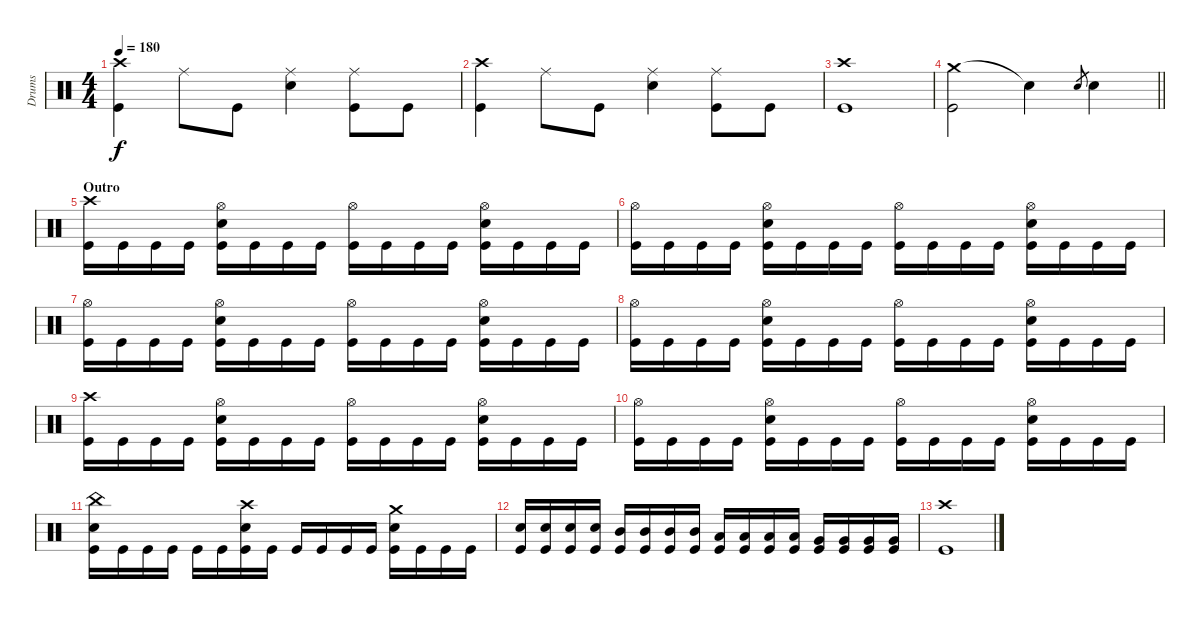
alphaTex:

\track ("Drums" "Drums") {instrument percussion}
\staff {score}
\articulation defaults
\ts (4 4)
\tempo 180
\clef neutral
\ks c
("Crash high (hit)" "Kick (hit)").4{dy f} "Ride (middle)".8 "Kick (hit)".8 ("Ride (middle)" "Electric Snare (hit)").4 ("Ride (middle)" "Kick (hit)").8 "Kick (hit)".8 |
("Crash high (hit)" "Kick (hit)").4 "Ride (middle)".8 "Kick (hit)".8 ("Ride (middle)" "Electric Snare (hit)").4 ("Ride (middle)" "Kick (hit)").8 "Kick (hit)".8 |
("Crash high (hit)" "Kick (hit)").1 |
\barLineRight lightlight
("Crash medium (hit)" "Kick (hit)").2 "Snare (hit)"{t}.4 "Electric Snare (hit)".8{gr} "Electric Snare (hit)".4 |
\section ("" "Outro")
("Crash high (hit)" "Kick (hit)").16 "Kick (hit)".16 "Kick (hit)".16 "Kick (hit)".16 ("Hi-Hat (open)" "Electric Snare (hit)" "Kick (hit)").16 "Kick (hit)".16 "Kick (hit)".16 "Kick (hit)".16 ("Hi-Hat (open)" "Kick (hit)").16 "Kick (hit)".16 "Kick (hit)".16 "Kick (hit)".16 ("Hi-Hat (open)" "Electric Snare (hit)" "Kick (hit)").16 "Kick (hit)".16 "Kick (hit)".16 "Kick (hit)".16 |
("Hi-Hat (open)" "Kick (hit)").16 "Kick (hit)".16 "Kick (hit)".16 "Kick (hit)".16 ("Hi-Hat (open)" "Electric Snare (hit)" "Kick (hit)").16 "Kick (hit)".16 "Kick (hit)".16 "Kick (hit)".16 ("Hi-Hat (open)" "Kick (hit)").16 "Kick (hit)".16 "Kick (hit)".16 "Kick (hit)".16 ("Hi-Hat (open)" "Electric Snare (hit)" "Kick (hit)").16 "Kick (hit)".16 "Kick (hit)".16 "Kick (hit)".16 |
("Hi-Hat (open)" "Kick (hit)").16 "Kick (hit)".16 "Kick (hit)".16 "Kick (hit)".16 ("Hi-Hat (open)" "Electric Snare (hit)" "Kick (hit)").16 "Kick (hit)".16 "Kick (hit)".16 "Kick (hit)".16 ("Hi-Hat (open)" "Kick (hit)").16 "Kick (hit)".16 "Kick (hit)".16 "Kick (hit)".16 ("Hi-Hat (open)" "Electric Snare (hit)" "Kick (hit)").16 "Kick (hit)".16 "Kick (hit)".16 "Kick (hit)".16 |
("Hi-Hat (open)" "Kick (hit)").16 "Kick (hit)".16 "Kick (hit)".16 "Kick (hit)".16 ("Hi-Hat (open)" "Electric Snare (hit)" "Kick (hit)").16 "Kick (hit)".16 "Kick (hit)".16 "Kick (hit)".16 ("Hi-Hat (open)" "Kick (hit)").16 "Kick (hit)".16 "Kick (hit)".16 "Kick (hit)".16 ("Hi-Hat (open)" "Electric Snare (hit)" "Kick (hit)").16 "Kick (hit)".16 "Kick (hit)".16 "Kick (hit)".16 |
("Crash high (hit)" "Kick (hit)").16 "Kick (hit)".16 "Kick (hit)".16 "Kick (hit)".16 ("Hi-Hat (open)" "Electric Snare (hit)" "Kick (hit)").16 "Kick (hit)".16 "Kick (hit)".16 "Kick (hit)".16 ("Hi-Hat (open)" "Kick (hit)").16 "Kick (hit)".16 "Kick (hit)".16 "Kick (hit)".16 ("Hi-Hat (open)" "Electric Snare (hit)" "Kick (hit)").16 "Kick (hit)".16 "Kick (hit)".16 "Kick (hit)".16 |
("Hi-Hat (open)" "Kick (hit)").16 "Kick (hit)".16 "Kick (hit)".16 "Kick (hit)".16 ("Hi-Hat (open)" "Electric Snare (hit)" "Kick (hit)").16 "Kick (hit)".16 "Kick (hit)".16 "Kick (hit)".16 ("Hi-Hat (open)" "Kick (hit)").16 "Kick (hit)".16 "Kick (hit)".16 "Kick (hit)".16 ("Hi-Hat (open)" "Electric Snare (hit)" "Kick (hit)").16 "Kick (hit)".16 "Kick (hit)".16 "Kick (hit)".16 |
("China (hit)" "Electric Snare (hit)" "Kick (hit)").16 "Kick (hit)".16 "Kick (hit)".16 "Kick (hit)".16 "Kick (hit)".16 "Kick (hit)".16 ("Crash high (hit)" "Electric Snare (hit)" "Kick (hit)").16 "Kick (hit)".16 "Kick (hit)".16 "Kick (hit)".16 "Kick (hit)".16 "Kick (hit)".16 ("Crash medium (hit)" "Electric Snare (hit)" "Kick (hit)").16 "Kick (hit)".16 "Kick (hit)".16 "Kick (hit)".16 |
("Electric Snare (hit)" "Kick (hit)").16 ("Electric Snare (hit)" "Kick (hit)").16 ("Electric Snare (hit)" "Kick (hit)").16 ("Electric Snare (hit)" "Kick (hit)").16 ("Mid Tom (hit)" "Kick (hit)").16 ("Mid Tom (hit)" "Kick (hit)").16 ("Mid Tom (hit)" "Kick (hit)").16 ("Mid Tom (hit)" "Kick (hit)").16 ("Low Tom (hit)" "Kick (hit)").16 ("Low Tom (hit)" "Kick (hit)").16 ("Low Tom (hit)" "Kick (hit)").16 ("Low Tom (hit)" "Kick (hit)").16 ("Very Low Tom (hit)" "Kick (hit)").16 ("Very Low Tom (hit)" "Kick (hit)").16 ("Very Low Tom (hit)" "Kick (hit)").16 ("Very Low Tom (hit)" "Kick (hit)").16 |
("Crash high (hit)" "Kick (hit)").1
